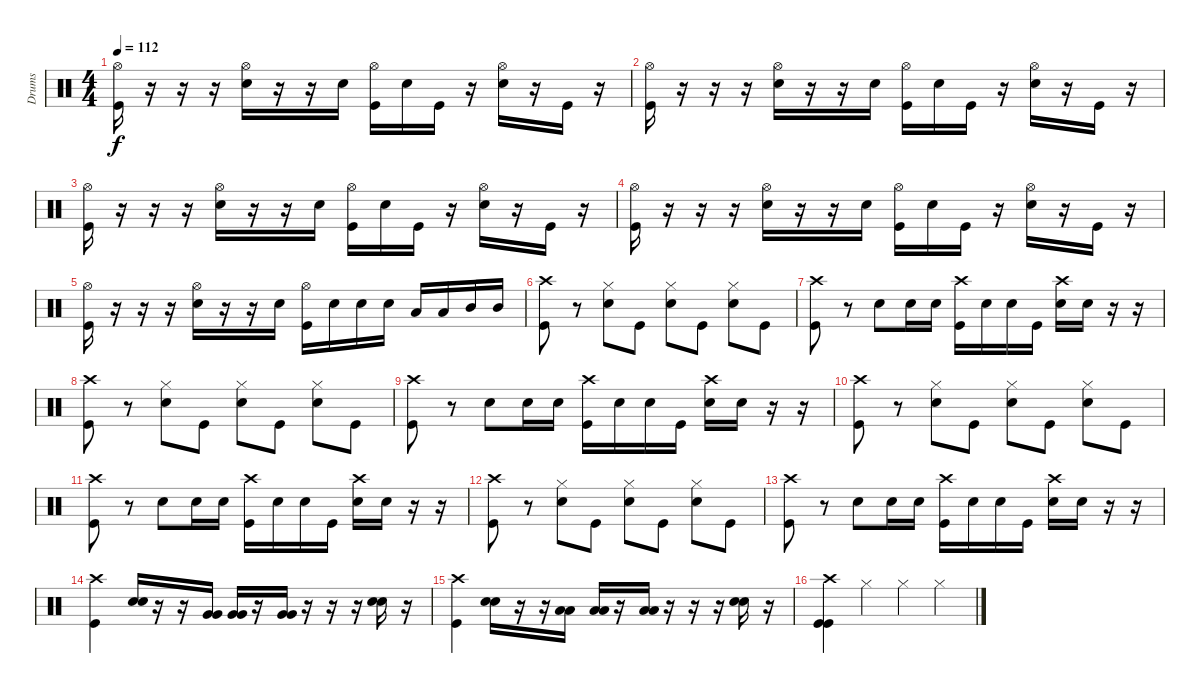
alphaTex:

\track ("Drums" "Drums") {instrument percussion}
\staff {score}
\articulation defaults
\ts (4 4)
\tempo 112
\clef neutral
\ks c
("Hi-Hat (open)" "Kick (hit)").16{dy f} r.16 r.16 r.16 ("Hi-Hat (open)" "Electric Snare (hit)").16 r.16 r.16 "Electric Snare (hit)".16 ("Hi-Hat (open)" "Kick (hit)").16 "Electric Snare (hit)".16 "Kick (hit)".16 r.16 ("Hi-Hat (open)" "Electric Snare (hit)").16 r.16 "Kick (hit)".16 r.16 |
("Hi-Hat (open)" "Kick (hit)").16 r.16 r.16 r.16 ("Hi-Hat (open)" "Electric Snare (hit)").16 r.16 r.16 "Electric Snare (hit)".16 ("Hi-Hat (open)" "Kick (hit)").16 "Electric Snare (hit)".16 "Kick (hit)".16 r.16 ("Hi-Hat (open)" "Electric Snare (hit)").16 r.16 "Kick (hit)".16 r.16 |
("Hi-Hat (open)" "Kick (hit)").16 r.16 r.16 r.16 ("Hi-Hat (open)" "Electric Snare (hit)").16 r.16 r.16 "Electric Snare (hit)".16 ("Hi-Hat (open)" "Kick (hit)").16 "Electric Snare (hit)".16 "Kick (hit)".16 r.16 ("Hi-Hat (open)" "Electric Snare (hit)").16 r.16 "Kick (hit)".16 r.16 |
("Hi-Hat (open)" "Kick (hit)").16 r.16 r.16 r.16 ("Hi-Hat (open)" "Electric Snare (hit)").16 r.16 r.16 "Electric Snare (hit)".16 ("Hi-Hat (open)" "Kick (hit)").16 "Electric Snare (hit)".16 "Kick (hit)".16 r.16 ("Hi-Hat (open)" "Electric Snare (hit)").16 r.16 "Kick (hit)".16 r.16 |
("Hi-Hat (open)" "Kick (hit)").16 r.16 r.16 r.16 ("Hi-Hat (open)" "Electric Snare (hit)").16 r.16 r.16 "Electric Snare (hit)".16 ("Hi-Hat (open)" "Kick (hit)").16 "Electric Snare (hit)".16 "Electric Snare (hit)".16 "Electric Snare (hit)".16 "Low Tom (hit)".16 "Low Tom (hit)".16 "Mid Tom (hit)".16 "Mid Tom (hit)".16 |
("Crash high (hit)" "Kick (hit)").8 r.8 ("Hi-Hat (closed)" "Electric Snare (hit)").8 "Kick (hit)".8 ("Hi-Hat (closed)" "Electric Snare (hit)").8 "Kick (hit)".8 ("Hi-Hat (closed)" "Electric Snare (hit)").8 "Kick (hit)".8 |
("Crash high (hit)" "Kick (hit)").8 r.8 "Electric Snare (hit)".8 "Electric Snare (hit)".16 "Electric Snare (hit)".16 ("Crash high (hit)" "Kick (hit)").16 "Electric Snare (hit)".16 "Electric Snare (hit)".16 "Kick (hit)".16 ("Crash high (hit)" "Electric Snare (hit)").16 "Electric Snare (hit)".16 r.16 r.16 |
("Crash high (hit)" "Kick (hit)").8 r.8 ("Hi-Hat (closed)" "Electric Snare (hit)").8 "Kick (hit)".8 ("Hi-Hat (closed)" "Electric Snare (hit)").8 "Kick (hit)".8 ("Hi-Hat (closed)" "Electric Snare (hit)").8 "Kick (hit)".8 |
("Crash high (hit)" "Kick (hit)").8 r.8 "Electric Snare (hit)".8 "Electric Snare (hit)".16 "Electric Snare (hit)".16 ("Crash high (hit)" "Kick (hit)").16 "Electric Snare (hit)".16 "Electric Snare (hit)".16 "Kick (hit)".16 ("Crash high (hit)" "Electric Snare (hit)").16 "Electric Snare (hit)".16 r.16 r.16 |
("Crash high (hit)" "Kick (hit)").8 r.8 ("Hi-Hat (closed)" "Electric Snare (hit)").8 "Kick (hit)".8 ("Hi-Hat (closed)" "Electric Snare (hit)").8 "Kick (hit)".8 ("Hi-Hat (closed)" "Electric Snare (hit)").8 "Kick (hit)".8 |
("Crash high (hit)" "Kick (hit)").8 r.8 "Electric Snare (hit)".8 "Electric Snare (hit)".16 "Electric Snare (hit)".16 ("Crash high (hit)" "Kick (hit)").16 "Electric Snare (hit)".16 "Electric Snare (hit)".16 "Kick (hit)".16 ("Crash high (hit)" "Electric Snare (hit)").16 "Electric Snare (hit)".16 r.16 r.16 |
("Crash high (hit)" "Kick (hit)").8 r.8 ("Hi-Hat (closed)" "Electric Snare (hit)").8 "Kick (hit)".8 ("Hi-Hat (closed)" "Electric Snare (hit)").8 "Kick (hit)".8 ("Hi-Hat (closed)" "Electric Snare (hit)").8 "Kick (hit)".8 |
("Crash high (hit)" "Kick (hit)").8 r.8 "Electric Snare (hit)".8 "Electric Snare (hit)".16 "Electric Snare (hit)".16 ("Crash high (hit)" "Kick (hit)").16 "Electric Snare (hit)".16 "Electric Snare (hit)".16 "Kick (hit)".16 ("Crash high (hit)" "Electric Snare (hit)").16 "Electric Snare (hit)".16 r.16 r.16 |
("Crash high (hit)" "Kick (hit)").4 ("Electric Snare (hit)" "Electric Snare (hit)").16 r.16 r.16 ("Very Low Tom (hit)" "Very Low Tom (hit)").16 ("Very Low Tom (hit)" "Very Low Tom (hit)").16 r.16 ("Very Low Tom (hit)" "Very Low Tom (hit)").16 r.16 r.16 r.16 ("Electric Snare (hit)" "Electric Snare (hit)").16 r.16 |
("Crash high (hit)" "Kick (hit)").4 ("Electric Snare (hit)" "Electric Snare (hit)").16 r.16 r.16 ("Low Floor Tom (hit)" "Low Floor Tom (hit)").16 ("Low Floor Tom (hit)" "Low Floor Tom (hit)").16 r.16 ("Low Floor Tom (hit)" "Low Floor Tom (hit)").16 r.16 r.16 r.16 ("Electric Snare (hit)" "Electric Snare (hit)").16 r.16 |
("Crash high (hit)" "Kick (hit)" "Kick (hit)").4 "Hi-Hat (closed)".4 "Hi-Hat (closed)".4 "Hi-Hat (closed)".4
